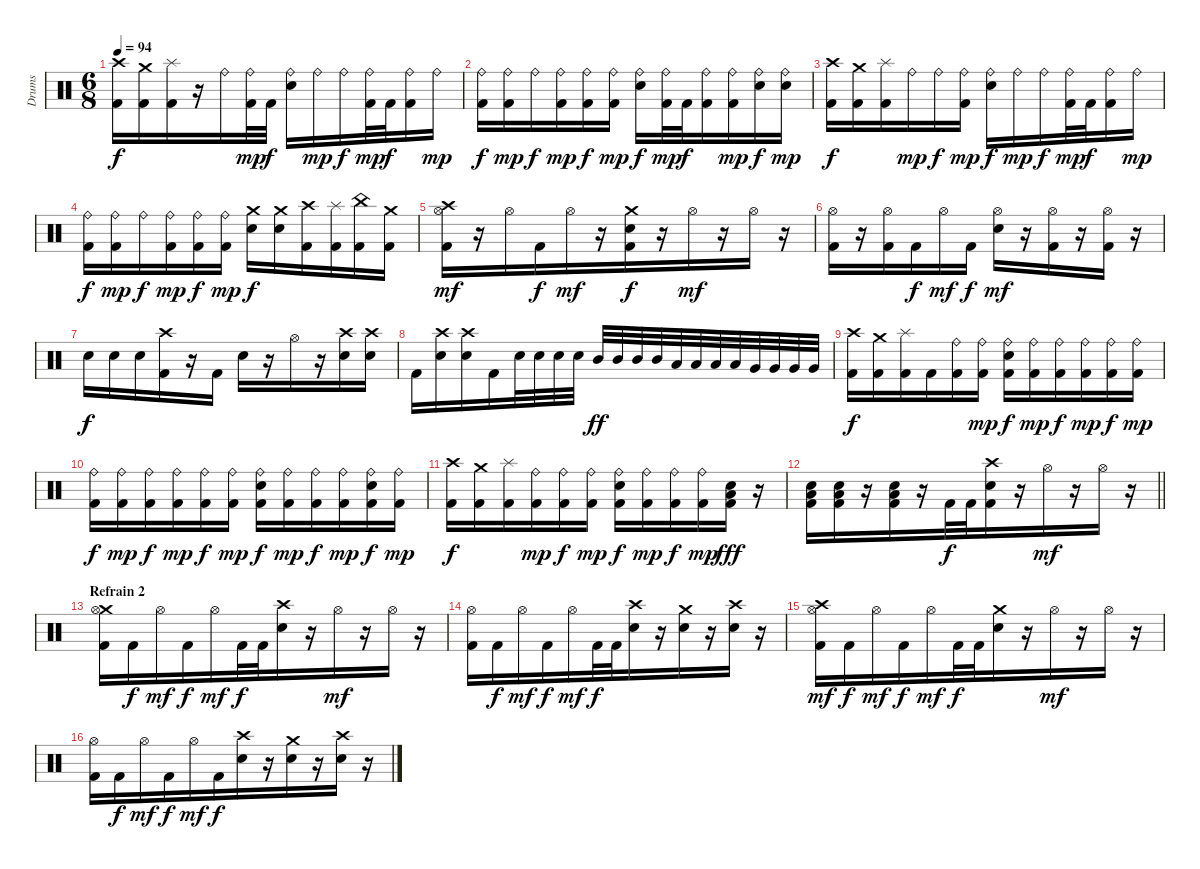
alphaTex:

\track ("Drums" "Drums") {instrument percussion}
\staff {score}
\articulation defaults
\ts (6 8)
\tempo 94
\clef neutral
\ks c
("Crash high (hit)" "Kick (hit) 2").16{dy f beam merge} ("Crash medium (hit)" "Kick (hit) 2").16{beam merge} ("Splash (hit)" "Kick (hit) 2").16 r.16{beam merge} "Ride (bell)".16 ("Ride (bell)" "Kick (hit) 2").32{dy mp beam merge} "Kick (hit) 2".32{dy f} ("Ride (bell)" "Snare (hit) 2").16 "Ride (bell)".16{dy mp} "Ride (bell)".16{dy f beam merge} ("Ride (bell)" "Kick (hit) 2").32{dy mp} "Kick (hit) 2".32{dy f beam merge} ("Ride (bell)" "Kick (hit) 2").16 "Ride (bell)".16{dy mp} |
("Ride (bell)" "Kick (hit) 2").16{dy f beam merge} ("Ride (bell)" "Kick (hit) 2").16{dy mp beam merge} "Ride (bell)".16{dy f} ("Ride (bell)" "Kick (hit) 2").16{dy mp beam merge} ("Ride (bell)" "Kick (hit) 2").16{dy f} ("Ride (bell)" "Kick (hit) 2").16{dy mp} ("Ride (bell)" "Snare (hit) 2").16{dy f} ("Ride (bell)" "Kick (hit) 2").32{dy mp beam merge} "Kick (hit) 2".32{dy f} ("Ride (bell)" "Kick (hit) 2").16{beam merge} ("Ride (bell)" "Kick (hit) 2").16{dy mp beam merge} ("Ride (bell)" "Snare (hit) 2").16{dy f} ("Ride (bell)" "Snare (hit) 2").16{dy mp} |
("Crash high (hit)" "Kick (hit) 2").16{dy f beam merge} ("Crash medium (hit)" "Kick (hit) 2").16{beam merge} ("Splash (hit)" "Kick (hit) 2").16 "Ride (bell)".16{dy mp beam merge} "Ride (bell)".16{dy f} ("Ride (bell)" "Kick (hit) 2").16{dy mp} ("Ride (bell)" "Snare (hit) 2").16{dy f} "Ride (bell)".16{dy mp} "Ride (bell)".16{dy f beam merge} ("Ride (bell)" "Kick (hit) 2").32{dy mp beam merge} "Kick (hit) 2".32{dy f beam merge} ("Ride (bell)" "Kick (hit) 2").16 "Ride (bell)".16{dy mp} |
("Ride (bell)" "Kick (hit) 2").16{dy f beam merge} ("Ride (bell)" "Kick (hit) 2").16{dy mp beam merge} "Ride (bell)".16{dy f} ("Ride (bell)" "Kick (hit) 2").16{dy mp beam merge} ("Ride (bell)" "Kick (hit) 2").16{dy f} ("Ride (bell)" "Kick (hit) 2").16{dy mp} ("Crash medium (hit)" "Snare (hit) 2").16{dy f} ("Crash medium (hit)" "Snare (hit) 2").16{beam merge} ("Crash high (hit)" "Kick (hit) 2").16 ("Splash (hit)" "Kick (hit) 2").16 ("China (hit)" "Kick (hit) 2").16 ("Crash medium (hit)" "Kick (hit) 2").16 |
("Crash high (hit)" "Hi-Hat (open)" "Kick (hit) 2").16{dy mf} r.16 "Hi-Hat (open)".16{beam merge} "Kick (hit) 2".16{dy f} "Hi-Hat (open)".16{dy mf beam merge} r.16 ("Crash medium (hit)" "Snare (hit) 2" "Kick (hit) 2").16{dy f} r.16 "Hi-Hat (open)".16{dy mf} r.16{beam merge} "Hi-Hat (open)".16{beam merge} r.16 |
("Hi-Hat (open)" "Kick (hit) 2").16 r.16 ("Hi-Hat (open)" "Kick (hit) 2").16{beam merge} "Kick (hit) 2".16{dy f} "Hi-Hat (open)".16{dy mf beam merge} "Kick (hit) 2".16{dy f} ("Hi-Hat (open)" "Snare (hit) 2").16{dy mf} r.16 ("Hi-Hat (open)" "Kick (hit) 2").16 r.16{beam merge} ("Hi-Hat (open)" "Kick (hit) 2").16{beam merge} r.16 |
"Snare (hit) 2".16{dy f} "Snare (hit) 2".16{beam merge} "Snare (hit) 2".16{beam merge} ("Crash high (hit)" "Kick (hit) 2").16 r.16 "Kick (hit) 2".16 "Snare (hit) 2".16 r.16 "Hi-Hat (open)".16 r.16 ("Crash high (hit)" "Snare (hit) 2").16{beam merge} ("Crash high (hit)" "Snare (hit) 2").16 |
"Kick (hit) 2".16 ("Crash high (hit)" "Snare (hit) 2").16{beam merge} ("Crash high (hit)" "Snare (hit) 2").16{beam merge} "Kick (hit) 2".16 "Snare (hit) 2".32{beam merge} "Snare (hit) 2".32 "Snare (hit) 2".32 "Snare (hit) 2".32 "Mid Tom (hit)".32{dy ff} "Mid Tom (hit)".32{beam merge} "Mid Tom (hit)".32 "Mid Tom (hit)".32{beam merge} "Low Tom (hit)".32{beam merge} "Low Tom (hit)".32{beam merge} "Low Tom (hit)".32 "Low Tom (hit)".32 "Very Low Tom (hit)".32{beam merge} "Very Low Tom (hit)".32 "Very Low Tom (hit)".32 "Very Low Tom (hit)".32 |
("Crash high (hit)" "Kick (hit) 2").16{dy f beam merge} ("Crash medium (hit)" "Kick (hit) 2").16{beam merge} ("Splash (hit)" "Kick (hit) 2").16 "Kick (hit) 2".16{beam merge} ("Ride (bell)" "Kick (hit) 2").16 ("Ride (bell)" "Kick (hit) 2").16{dy mp} ("Ride (bell)" "Snare (hit) 2" "Kick (hit) 2").16{dy f} ("Ride (bell)" "Kick (hit) 2").16{dy mp} ("Ride (bell)" "Kick (hit) 2").16{dy f beam merge} ("Ride (bell)" "Kick (hit) 2").16{dy mp beam merge} ("Ride (bell)" "Kick (hit) 2").16{dy f} ("Ride (bell)" "Kick (hit) 2").16{dy mp} |
("Ride (bell)" "Kick (hit) 2").16{dy f beam merge} ("Ride (bell)" "Kick (hit) 2").16{dy mp beam merge} ("Ride (bell)" "Kick (hit) 2").16{dy f} ("Ride (bell)" "Kick (hit) 2").16{dy mp beam merge} ("Ride (bell)" "Kick (hit) 2").16{dy f} ("Ride (bell)" "Kick (hit) 2").16{dy mp} ("Ride (bell)" "Snare (hit) 2" "Kick (hit) 2").16{dy f} ("Ride (bell)" "Kick (hit) 2").16{dy mp} ("Ride (bell)" "Kick (hit) 2").16{dy f beam merge} ("Ride (bell)" "Kick (hit) 2").16{dy mp beam merge} ("Ride (bell)" "Snare (hit) 2" "Kick (hit) 2").16{dy f} ("Ride (bell)" "Kick (hit) 2").16{dy mp} |
("Crash high (hit)" "Kick (hit) 2").16{dy f beam merge} ("Crash medium (hit)" "Kick (hit) 2").16{beam merge} ("Splash (hit)" "Kick (hit) 2").16 ("Ride (bell)" "Kick (hit) 2").16{dy mp beam merge} ("Ride (bell)" "Kick (hit) 2").16{dy f} ("Ride (bell)" "Kick (hit) 2").16{dy mp} ("Ride (bell)" "Snare (hit) 2" "Kick (hit) 2").16{dy f} ("Ride (bell)" "Kick (hit) 2").16{dy mp} ("Ride (bell)" "Kick (hit) 2").16{dy f beam merge} ("Ride (bell)" "Kick (hit) 2").16{dy mp beam merge} ("Low Floor Tom (hit)" "Snare (hit) 2" "Kick (hit) 2").16{dy fff} r.16 |
\barLineRight lightlight
("Low Floor Tom (hit)" "Snare (hit) 2" "Kick (hit) 2").16 ("Low Floor Tom (hit)" "Snare (hit) 2" "Kick (hit) 2").16{beam merge} r.16 ("Low Floor Tom (hit)" "Snare (hit) 2" "Kick (hit) 2").16 r.16 "Kick (hit) 2".32{dy f} "Kick (hit) 2".32{beam merge} ("Crash high (hit)" "Snare (hit) 2" "Kick (hit) 2").16{beam merge} r.16{beam merge} "Hi-Hat (open)".16{dy mf} r.16 "Hi-Hat (open)".16 r.16 |
\section ("" "Refrain 2")
("Crash medium (hit)" "Hi-Hat (open)" "Kick (hit) 2").16{beam merge} "Kick (hit) 2".16{dy f beam merge} "Hi-Hat (open)".16{dy mf beam merge} "Kick (hit) 2".16{dy f} "Hi-Hat (open)".16{dy mf beam merge} "Kick (hit) 2".32{dy f beam merge} "Kick (hit) 2".32{beam merge} ("Crash high (hit)" "Snare (hit) 2").16 r.16 "Hi-Hat (open)".16{dy mf} r.16 "Hi-Hat (open)".16 r.16 |
("Hi-Hat (open)" "Kick (hit) 2").16{beam merge} "Kick (hit) 2".16{dy f beam merge} "Hi-Hat (open)".16{dy mf beam merge} "Kick (hit) 2".16{dy f} "Hi-Hat (open)".16{dy mf} "Kick (hit) 2".32{dy f beam merge} "Kick (hit) 2".32{beam merge} ("Crash high (hit)" "Snare (hit) 2").16 r.16 ("Crash medium (hit)" "Snare (hit) 2").16 r.16 ("Crash high (hit)" "Snare (hit) 2").16 r.16 |
("Crash high (hit)" "Hi-Hat (open)" "Kick (hit) 2").16{dy mf beam merge} "Kick (hit) 2".16{dy f beam merge} "Hi-Hat (open)".16{dy mf beam merge} "Kick (hit) 2".16{dy f} "Hi-Hat (open)".16{dy mf beam merge} "Kick (hit) 2".32{dy f beam merge} "Kick (hit) 2".32{beam merge} ("Crash medium (hit)" "Snare (hit) 2").16 r.16 "Hi-Hat (open)".16{dy mf} r.16 "Hi-Hat (open)".16 r.16 |
("Hi-Hat (open)" "Kick (hit) 2").16{beam merge} "Kick (hit) 2".16{dy f beam merge} "Hi-Hat (open)".16{dy mf beam merge} "Kick (hit) 2".16{dy f} "Hi-Hat (open)".16{dy mf} "Kick (hit) 2".16{dy f beam merge} ("Crash high (hit)" "Snare (hit) 2").16 r.16 ("Crash medium (hit)" "Snare (hit) 2").16 r.16 ("Crash high (hit)" "Snare (hit) 2").16 r.16
